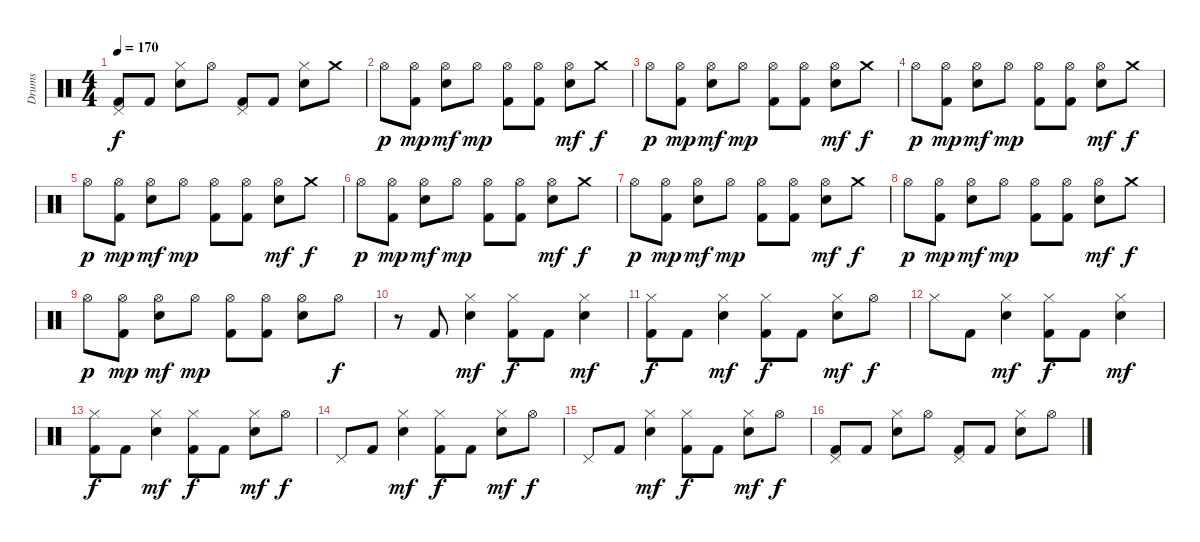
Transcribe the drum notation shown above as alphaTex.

\track ("Drums" "Drums") {instrument percussion}
\staff {score}
\articulation defaults
\ts (4 4)
\tempo 170
\clef neutral
\ks c
("Pedal Hi-Hat (hit)" "Kick (hit) 2").8{dy f} "Kick (hit) 2".8 ("Hi-Hat (closed)" "Electric Snare (hit)").8 "Hi-Hat (open)".8 ("Pedal Hi-Hat (hit)" "Kick (hit) 2").8 "Kick (hit) 2".8 ("Hi-Hat (closed)" "Electric Snare (hit)").8 "Crash medium (hit)".8 |
"Hi-Hat (open)".8{dy p} ("Hi-Hat (open)" "Kick (hit) 2").8{dy mp} ("Hi-Hat (open)" "Electric Snare (hit)").8{dy mf} "Hi-Hat (open)".8{dy mp} ("Hi-Hat (open)" "Kick (hit) 2").8 ("Hi-Hat (open)" "Kick (hit) 2").8 ("Hi-Hat (open)" "Electric Snare (hit)").8{dy mf} "Crash medium (hit)".8{dy f} |
"Hi-Hat (open)".8{dy p} ("Hi-Hat (open)" "Kick (hit) 2").8{dy mp} ("Hi-Hat (open)" "Electric Snare (hit)").8{dy mf} "Hi-Hat (open)".8{dy mp} ("Hi-Hat (open)" "Kick (hit) 2").8 ("Hi-Hat (open)" "Kick (hit) 2").8 ("Hi-Hat (open)" "Electric Snare (hit)").8{dy mf} "Crash medium (hit)".8{dy f} |
"Hi-Hat (open)".8{dy p} ("Hi-Hat (open)" "Kick (hit) 2").8{dy mp} ("Hi-Hat (open)" "Electric Snare (hit)").8{dy mf} "Hi-Hat (open)".8{dy mp} ("Hi-Hat (open)" "Kick (hit) 2").8 ("Hi-Hat (open)" "Kick (hit) 2").8 ("Hi-Hat (open)" "Electric Snare (hit)").8{dy mf} "Crash medium (hit)".8{dy f} |
"Hi-Hat (open)".8{dy p} ("Hi-Hat (open)" "Kick (hit) 2").8{dy mp} ("Hi-Hat (open)" "Electric Snare (hit)").8{dy mf} "Hi-Hat (open)".8{dy mp} ("Hi-Hat (open)" "Kick (hit) 2").8 ("Hi-Hat (open)" "Kick (hit) 2").8 ("Hi-Hat (open)" "Electric Snare (hit)").8{dy mf} "Crash medium (hit)".8{dy f} |
"Hi-Hat (open)".8{dy p} ("Hi-Hat (open)" "Kick (hit) 2").8{dy mp} ("Hi-Hat (open)" "Electric Snare (hit)").8{dy mf} "Hi-Hat (open)".8{dy mp} ("Hi-Hat (open)" "Kick (hit) 2").8 ("Hi-Hat (open)" "Kick (hit) 2").8 ("Hi-Hat (open)" "Electric Snare (hit)").8{dy mf} "Crash medium (hit)".8{dy f} |
"Hi-Hat (open)".8{dy p} ("Hi-Hat (open)" "Kick (hit) 2").8{dy mp} ("Hi-Hat (open)" "Electric Snare (hit)").8{dy mf} "Hi-Hat (open)".8{dy mp} ("Hi-Hat (open)" "Kick (hit) 2").8 ("Hi-Hat (open)" "Kick (hit) 2").8 ("Hi-Hat (open)" "Electric Snare (hit)").8{dy mf} "Crash medium (hit)".8{dy f} |
"Hi-Hat (open)".8{dy p} ("Hi-Hat (open)" "Kick (hit) 2").8{dy mp} ("Hi-Hat (open)" "Electric Snare (hit)").8{dy mf} "Hi-Hat (open)".8{dy mp} ("Hi-Hat (open)" "Kick (hit) 2").8 ("Hi-Hat (open)" "Kick (hit) 2").8 ("Hi-Hat (open)" "Electric Snare (hit)").8{dy mf} "Crash medium (hit)".8{dy f} |
"Hi-Hat (open)".8{dy p} ("Hi-Hat (open)" "Kick (hit) 2").8{dy mp} ("Hi-Hat (open)" "Electric Snare (hit)").8{dy mf} "Hi-Hat (open)".8{dy mp} ("Hi-Hat (open)" "Kick (hit) 2").8 ("Hi-Hat (open)" "Kick (hit) 2").8 ("Hi-Hat (open)" "Electric Snare (hit)").8 "Hi-Hat (open)".8{dy f} |
r.8 "Kick (hit) 2".8 ("Hi-Hat (closed)" "Electric Snare (hit)").4{dy mf} ("Hi-Hat (closed)" "Kick (hit) 2").8{dy f} "Kick (hit) 2".8 ("Hi-Hat (closed)" "Electric Snare (hit)").4{dy mf} |
("Hi-Hat (closed)" "Kick (hit) 2").8{dy f} "Kick (hit) 2".8 ("Hi-Hat (closed)" "Electric Snare (hit)").4{dy mf} ("Hi-Hat (closed)" "Kick (hit) 2").8{dy f} "Kick (hit) 2".8 ("Hi-Hat (closed)" "Electric Snare (hit)").8{dy mf} "Hi-Hat (open)".8{dy f} |
"Hi-Hat (closed)".8 "Kick (hit) 2".8 ("Hi-Hat (closed)" "Electric Snare (hit)").4{dy mf} ("Hi-Hat (closed)" "Kick (hit) 2").8{dy f} "Kick (hit) 2".8 ("Hi-Hat (closed)" "Electric Snare (hit)").4{dy mf} |
("Hi-Hat (closed)" "Kick (hit) 2").8{dy f} "Kick (hit) 2".8 ("Hi-Hat (closed)" "Electric Snare (hit)").4{dy mf} ("Hi-Hat (closed)" "Kick (hit) 2").8{dy f} "Kick (hit) 2".8 ("Hi-Hat (closed)" "Electric Snare (hit)").8{dy mf} "Hi-Hat (open)".8{dy f} |
"Pedal Hi-Hat (hit)".8 "Kick (hit) 2".8 ("Hi-Hat (closed)" "Electric Snare (hit)").4{dy mf} ("Hi-Hat (closed)" "Kick (hit) 2").8{dy f} "Kick (hit) 2".8 ("Hi-Hat (closed)" "Electric Snare (hit)").8{dy mf} "Hi-Hat (open)".8{dy f} |
"Pedal Hi-Hat (hit)".8 "Kick (hit) 2".8 ("Hi-Hat (closed)" "Electric Snare (hit)").4{dy mf} ("Hi-Hat (closed)" "Kick (hit) 2").8{dy f} "Kick (hit) 2".8 ("Hi-Hat (closed)" "Electric Snare (hit)").8{dy mf} "Hi-Hat (open)".8{dy f} |
("Pedal Hi-Hat (hit)" "Kick (hit) 2").8 "Kick (hit) 2".8 ("Hi-Hat (closed)" "Electric Snare (hit)").8 "Hi-Hat (open)".8 ("Pedal Hi-Hat (hit)" "Kick (hit) 2").8 "Kick (hit) 2".8 ("Hi-Hat (closed)" "Electric Snare (hit)").8 "Hi-Hat (open)".8
